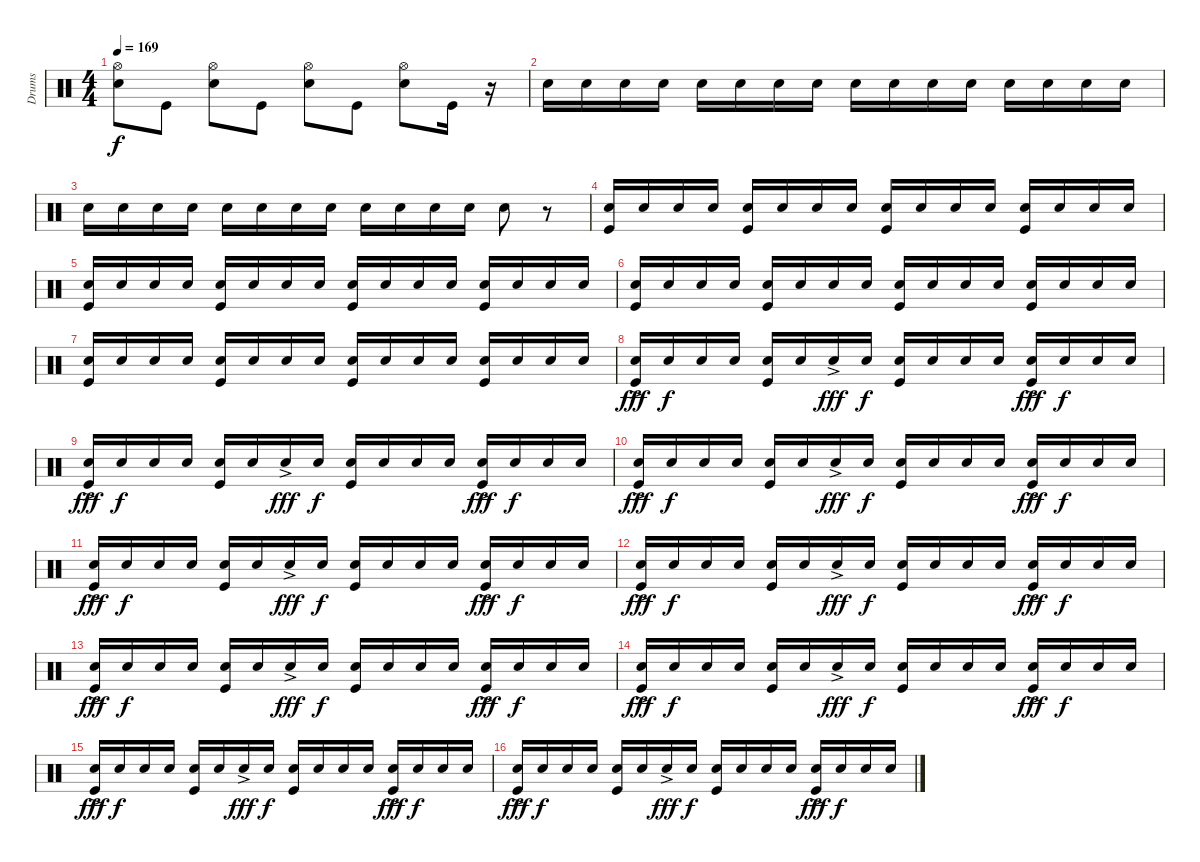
\track ("Drums" "Drums") {instrument percussion}
\staff {score}
\articulation defaults
\ts (4 4)
\tempo 169
\clef neutral
\ks c
("Hi-Hat (open)" "Snare (hit) 2").8{dy f} "Kick (hit)".8 ("Hi-Hat (open)" "Snare (hit) 2").8 "Kick (hit)".8 ("Hi-Hat (open)" "Snare (hit) 2").8 "Kick (hit)".8 ("Hi-Hat (open)" "Snare (hit) 2").8 "Kick (hit)".16 r.16{volume 3} |
"Snare (hit) 2".16{volume 8} "Snare (hit) 2".16 "Snare (hit) 2".16 "Snare (hit) 2".16 "Snare (hit) 2".16 "Snare (hit) 2".16 "Snare (hit) 2".16 "Snare (hit) 2".16 "Snare (hit) 2".16 "Snare (hit) 2".16 "Snare (hit) 2".16 "Snare (hit) 2".16 "Snare (hit) 2".16 "Snare (hit) 2".16 "Snare (hit) 2".16 "Snare (hit) 2".16 |
"Snare (hit) 2".16 "Snare (hit) 2".16 "Snare (hit) 2".16 "Snare (hit) 2".16 "Snare (hit) 2".16 "Snare (hit) 2".16 "Snare (hit) 2".16 "Snare (hit) 2".16 "Snare (hit) 2".16 "Snare (hit) 2".16 "Snare (hit) 2".16 "Snare (hit) 2".16 "Snare (hit) 2".8 r.8{volume 4} |
("Snare (hit) 2" "Kick (hit)").16 "Snare (hit) 2".16 "Snare (hit) 2".16 "Snare (hit) 2".16 ("Snare (hit) 2" "Kick (hit)").16 "Snare (hit) 2".16 "Snare (hit) 2".16 "Snare (hit) 2".16 ("Snare (hit) 2" "Kick (hit)").16 "Snare (hit) 2".16 "Snare (hit) 2".16 "Snare (hit) 2".16 ("Snare (hit) 2" "Kick (hit)").16 "Snare (hit) 2".16 "Snare (hit) 2".16 "Snare (hit) 2".16 |
("Snare (hit) 2" "Kick (hit)").16 "Snare (hit) 2".16 "Snare (hit) 2".16 "Snare (hit) 2".16 ("Snare (hit) 2" "Kick (hit)").16 "Snare (hit) 2".16 "Snare (hit) 2".16 "Snare (hit) 2".16 ("Snare (hit) 2" "Kick (hit)").16 "Snare (hit) 2".16 "Snare (hit) 2".16 "Snare (hit) 2".16 ("Snare (hit) 2" "Kick (hit)").16 "Snare (hit) 2".16 "Snare (hit) 2".16 "Snare (hit) 2".16 |
("Snare (hit) 2" "Kick (hit)").16 "Snare (hit) 2".16 "Snare (hit) 2".16 "Snare (hit) 2".16 ("Snare (hit) 2" "Kick (hit)").16 "Snare (hit) 2".16 "Snare (hit) 2".16 "Snare (hit) 2".16 ("Snare (hit) 2" "Kick (hit)").16 "Snare (hit) 2".16 "Snare (hit) 2".16 "Snare (hit) 2".16 ("Snare (hit) 2" "Kick (hit)").16 "Snare (hit) 2".16 "Snare (hit) 2".16 "Snare (hit) 2".16 |
("Snare (hit) 2" "Kick (hit)").16 "Snare (hit) 2".16 "Snare (hit) 2".16 "Snare (hit) 2".16 ("Snare (hit) 2" "Kick (hit)").16 "Snare (hit) 2".16 "Snare (hit) 2".16 "Snare (hit) 2".16 ("Snare (hit) 2" "Kick (hit)").16 "Snare (hit) 2".16 "Snare (hit) 2".16 "Snare (hit) 2".16 ("Snare (hit) 2" "Kick (hit)").16 "Snare (hit) 2".16 "Snare (hit) 2".16 "Snare (hit) 2".16 |
("Snare (hit) 2"{ac} "Kick (hit)").16{dy fff} "Snare (hit) 2".16{dy f} "Snare (hit) 2".16 "Snare (hit) 2".16 ("Snare (hit) 2" "Kick (hit)").16 "Snare (hit) 2".16 "Snare (hit) 2"{ac}.16{dy fff} "Snare (hit) 2".16{dy f} ("Snare (hit) 2" "Kick (hit)").16 "Snare (hit) 2".16 "Snare (hit) 2".16 "Snare (hit) 2".16 ("Snare (hit) 2"{ac} "Kick (hit)").16{dy fff} "Snare (hit) 2".16{dy f} "Snare (hit) 2".16 "Snare (hit) 2".16 |
("Snare (hit) 2"{ac} "Kick (hit)").16{dy fff} "Snare (hit) 2".16{dy f} "Snare (hit) 2".16 "Snare (hit) 2".16 ("Snare (hit) 2" "Kick (hit)").16 "Snare (hit) 2".16 "Snare (hit) 2"{ac}.16{dy fff} "Snare (hit) 2".16{dy f} ("Snare (hit) 2" "Kick (hit)").16 "Snare (hit) 2".16 "Snare (hit) 2".16 "Snare (hit) 2".16 ("Snare (hit) 2"{ac} "Kick (hit)").16{dy fff} "Snare (hit) 2".16{dy f} "Snare (hit) 2".16 "Snare (hit) 2".16 |
("Snare (hit) 2"{ac} "Kick (hit)").16{dy fff} "Snare (hit) 2".16{dy f} "Snare (hit) 2".16 "Snare (hit) 2".16 ("Snare (hit) 2" "Kick (hit)").16 "Snare (hit) 2".16 "Snare (hit) 2"{ac}.16{dy fff} "Snare (hit) 2".16{dy f} ("Snare (hit) 2" "Kick (hit)").16 "Snare (hit) 2".16 "Snare (hit) 2".16 "Snare (hit) 2".16 ("Snare (hit) 2"{ac} "Kick (hit)").16{dy fff} "Snare (hit) 2".16{dy f} "Snare (hit) 2".16 "Snare (hit) 2".16 |
("Snare (hit) 2"{ac} "Kick (hit)").16{dy fff} "Snare (hit) 2".16{dy f} "Snare (hit) 2".16 "Snare (hit) 2".16 ("Snare (hit) 2" "Kick (hit)").16 "Snare (hit) 2".16 "Snare (hit) 2"{ac}.16{dy fff} "Snare (hit) 2".16{dy f} ("Snare (hit) 2" "Kick (hit)").16 "Snare (hit) 2".16 "Snare (hit) 2".16 "Snare (hit) 2".16 ("Snare (hit) 2"{ac} "Kick (hit)").16{dy fff} "Snare (hit) 2".16{dy f} "Snare (hit) 2".16 "Snare (hit) 2".16 |
("Snare (hit) 2"{ac} "Kick (hit)").16{dy fff} "Snare (hit) 2".16{dy f} "Snare (hit) 2".16 "Snare (hit) 2".16 ("Snare (hit) 2" "Kick (hit)").16 "Snare (hit) 2".16 "Snare (hit) 2"{ac}.16{dy fff} "Snare (hit) 2".16{dy f} ("Snare (hit) 2" "Kick (hit)").16 "Snare (hit) 2".16 "Snare (hit) 2".16 "Snare (hit) 2".16 ("Snare (hit) 2"{ac} "Kick (hit)").16{dy fff} "Snare (hit) 2".16{dy f} "Snare (hit) 2".16 "Snare (hit) 2".16 |
("Snare (hit) 2"{ac} "Kick (hit)").16{dy fff} "Snare (hit) 2".16{dy f} "Snare (hit) 2".16 "Snare (hit) 2".16 ("Snare (hit) 2" "Kick (hit)").16 "Snare (hit) 2".16 "Snare (hit) 2"{ac}.16{dy fff} "Snare (hit) 2".16{dy f} ("Snare (hit) 2" "Kick (hit)").16 "Snare (hit) 2".16 "Snare (hit) 2".16 "Snare (hit) 2".16 ("Snare (hit) 2"{ac} "Kick (hit)").16{dy fff} "Snare (hit) 2".16{dy f} "Snare (hit) 2".16 "Snare (hit) 2".16 |
("Snare (hit) 2"{ac} "Kick (hit)").16{dy fff} "Snare (hit) 2".16{dy f} "Snare (hit) 2".16 "Snare (hit) 2".16 ("Snare (hit) 2" "Kick (hit)").16 "Snare (hit) 2".16 "Snare (hit) 2"{ac}.16{dy fff} "Snare (hit) 2".16{dy f} ("Snare (hit) 2" "Kick (hit)").16 "Snare (hit) 2".16 "Snare (hit) 2".16 "Snare (hit) 2".16 ("Snare (hit) 2"{ac} "Kick (hit)").16{dy fff} "Snare (hit) 2".16{dy f} "Snare (hit) 2".16 "Snare (hit) 2".16 |
("Snare (hit) 2"{ac} "Kick (hit)").16{dy fff} "Snare (hit) 2".16{dy f} "Snare (hit) 2".16 "Snare (hit) 2".16 ("Snare (hit) 2" "Kick (hit)").16 "Snare (hit) 2".16 "Snare (hit) 2"{ac}.16{dy fff} "Snare (hit) 2".16{dy f} ("Snare (hit) 2" "Kick (hit)").16 "Snare (hit) 2".16 "Snare (hit) 2".16 "Snare (hit) 2".16 ("Snare (hit) 2"{ac} "Kick (hit)").16{dy fff} "Snare (hit) 2".16{dy f} "Snare (hit) 2".16 "Snare (hit) 2".16 |
("Snare (hit) 2"{ac} "Kick (hit)").16{dy fff} "Snare (hit) 2".16{dy f} "Snare (hit) 2".16 "Snare (hit) 2".16 ("Snare (hit) 2" "Kick (hit)").16 "Snare (hit) 2".16 "Snare (hit) 2"{ac}.16{dy fff} "Snare (hit) 2".16{dy f} ("Snare (hit) 2" "Kick (hit)").16 "Snare (hit) 2".16 "Snare (hit) 2".16 "Snare (hit) 2".16 ("Snare (hit) 2"{ac} "Kick (hit)").16{dy fff} "Snare (hit) 2".16{dy f} "Snare (hit) 2".16 "Snare (hit) 2".16
